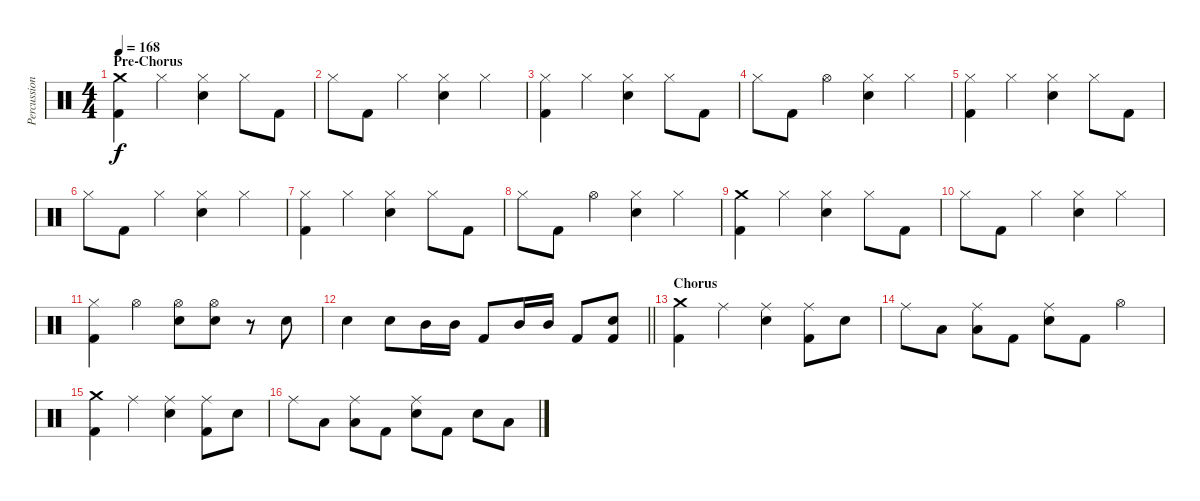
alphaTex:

\track ("Percussion" "Percussion") {instrument percussion}
\staff {score}
\articulation defaults
\ts (4 4)
\section ("" "Pre-Chorus")
\tempo 168
\clef neutral
\ks c
("Crash medium (hit)" "Kick (hit) 2").4{dy f} "Hi-Hat (closed)".4 ("Hi-Hat (closed)" "Electric Snare (hit)").4 "Hi-Hat (closed)".8 "Kick (hit) 2".8 |
"Hi-Hat (closed)".8 "Kick (hit) 2".8 "Hi-Hat (closed)".4 ("Hi-Hat (closed)" "Electric Snare (hit)").4 "Hi-Hat (closed)".4 |
("Hi-Hat (closed)" "Kick (hit) 2").4 "Hi-Hat (closed)".4 ("Hi-Hat (closed)" "Electric Snare (hit)").4 "Hi-Hat (closed)".8 "Kick (hit) 2".8 |
"Hi-Hat (closed)".8 "Kick (hit) 2".8 "Hi-Hat (open)".4 ("Hi-Hat (closed)" "Electric Snare (hit)").4 "Hi-Hat (closed)".4 |
("Hi-Hat (closed)" "Kick (hit) 2").4 "Hi-Hat (closed)".4 ("Hi-Hat (closed)" "Electric Snare (hit)").4 "Hi-Hat (closed)".8 "Kick (hit) 2".8 |
"Hi-Hat (closed)".8 "Kick (hit) 2".8 "Hi-Hat (closed)".4 ("Hi-Hat (closed)" "Electric Snare (hit)").4 "Hi-Hat (closed)".4 |
("Hi-Hat (closed)" "Kick (hit) 2").4 "Hi-Hat (closed)".4 ("Hi-Hat (closed)" "Electric Snare (hit)").4 "Hi-Hat (closed)".8 "Kick (hit) 2".8 |
"Hi-Hat (closed)".8 "Kick (hit) 2".8 "Hi-Hat (open)".4 ("Hi-Hat (closed)" "Electric Snare (hit)").4 "Hi-Hat (closed)".4 |
("Crash medium (hit)" "Kick (hit) 2").4 "Hi-Hat (closed)".4 ("Hi-Hat (closed)" "Electric Snare (hit)").4 "Hi-Hat (closed)".8 "Kick (hit) 2".8 |
"Hi-Hat (closed)".8 "Kick (hit) 2".8 "Hi-Hat (closed)".4 ("Hi-Hat (closed)" "Electric Snare (hit)").4 "Hi-Hat (closed)".4 |
("Hi-Hat (closed)" "Kick (hit) 2").4 "Hi-Hat (open)".4 ("Hi-Hat (open)" "Electric Snare (hit)").8 ("Hi-Hat (open)" "Electric Snare (hit)").8 r.8 "Electric Snare (hit)".8 |
\barLineRight lightlight "Electric Snare (hit)".4 "Electric Snare (hit)".8 "Mid Tom (hit)".16 "Mid Tom (hit)".16 "Kick (hit) 2".8 "Mid Tom (hit)".16 "Mid Tom (hit)".16 "Kick (hit) 2".8
("Electric Snare (hit)" "Kick (hit) 2").8 |
\section ("" "Chorus")
("Crash medium (hit)" "Kick (hit) 2").4 "Ride (middle)".4 ("Ride (middle)" "Electric Snare (hit)").4 ("Ride (middle)" "Kick (hit) 2").8 "Electric Snare (hit)".8 |
"Ride (middle)".8 "Low Tom (hit)".8 ("Ride (middle)" "Low Tom (hit)").8 "Kick (hit) 2".8 ("Ride (middle)" "Electric Snare (hit)").8 "Kick (hit) 2".8 "Hi-Hat (open)".4 |
("Crash medium (hit)" "Kick (hit) 2").4 "Ride (middle)".4 ("Ride (middle)" "Electric Snare (hit)").4 ("Ride (middle)" "Kick (hit) 2").8 "Electric Snare (hit)".8 |
"Ride (middle)".8 "Low Tom (hit)".8 ("Ride (middle)" "Low Tom (hit)").8 "Kick (hit) 2".8 ("Ride (middle)" "Electric Snare (hit)").8 "Kick (hit) 2".8 "Electric Snare (hit)".8 "Low Tom (hit)".8
